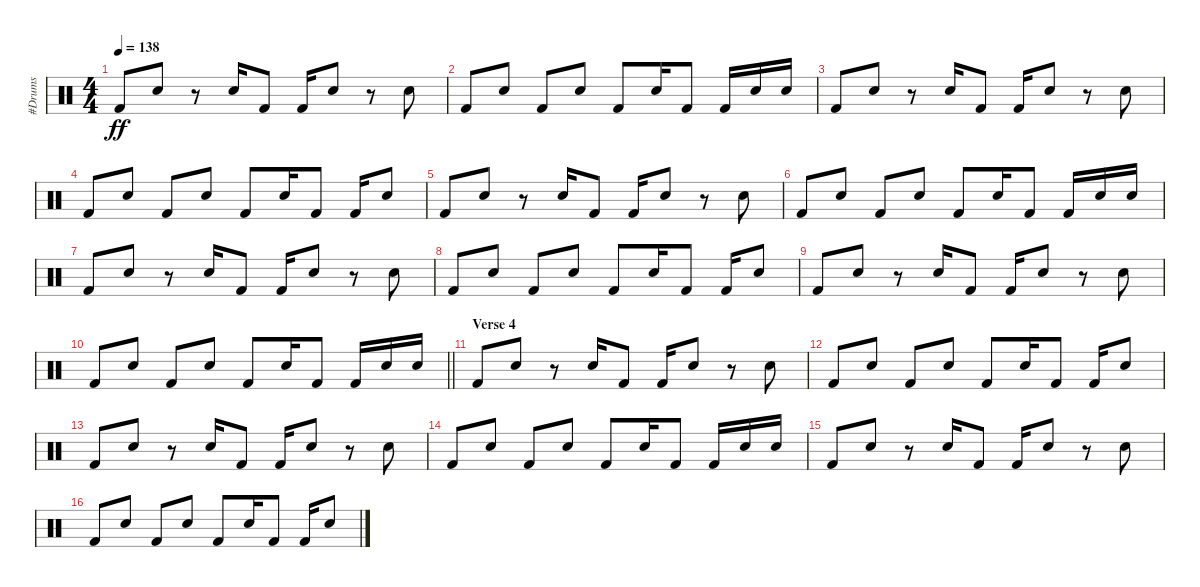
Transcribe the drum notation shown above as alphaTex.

\track ("#Drums" "#Drums") {instrument percussion}
\staff {score}
\articulation defaults
\ts (4 4)
\tempo 138
\clef neutral
\ks c "Kick (hit) 2".8{dy ff} "Snare (hit) 2".8
r.8 "Snare (hit) 2".16 "Kick (hit) 2".8 "Kick (hit) 2".16 "Snare (hit) 2".8 r.8 "Snare (hit) 2".8 |
"Kick (hit) 2".8 "Snare (hit) 2".8 "Kick (hit) 2".8 "Snare (hit) 2".8 "Kick (hit) 2".8 "Snare (hit) 2".16 "Kick (hit) 2".8 "Kick (hit) 2".16 "Snare (hit) 2".16 "Snare (hit) 2".16 |
"Kick (hit) 2".8 "Snare (hit) 2".8 r.8 "Snare (hit) 2".16 "Kick (hit) 2".8 "Kick (hit) 2".16 "Snare (hit) 2".8 r.8 "Snare (hit) 2".8 |
"Kick (hit) 2".8 "Snare (hit) 2".8 "Kick (hit) 2".8 "Snare (hit) 2".8 "Kick (hit) 2".8 "Snare (hit) 2".16 "Kick (hit) 2".8 "Kick (hit) 2".16 "Snare (hit) 2".8 |
"Kick (hit) 2".8 "Snare (hit) 2".8 r.8 "Snare (hit) 2".16 "Kick (hit) 2".8 "Kick (hit) 2".16 "Snare (hit) 2".8 r.8 "Snare (hit) 2".8 |
"Kick (hit) 2".8 "Snare (hit) 2".8 "Kick (hit) 2".8 "Snare (hit) 2".8 "Kick (hit) 2".8 "Snare (hit) 2".16 "Kick (hit) 2".8 "Kick (hit) 2".16 "Snare (hit) 2".16 "Snare (hit) 2".16 |
"Kick (hit) 2".8 "Snare (hit) 2".8 r.8 "Snare (hit) 2".16 "Kick (hit) 2".8 "Kick (hit) 2".16 "Snare (hit) 2".8 r.8 "Snare (hit) 2".8 |
"Kick (hit) 2".8 "Snare (hit) 2".8 "Kick (hit) 2".8 "Snare (hit) 2".8 "Kick (hit) 2".8 "Snare (hit) 2".16 "Kick (hit) 2".8 "Kick (hit) 2".16 "Snare (hit) 2".8 |
"Kick (hit) 2".8 "Snare (hit) 2".8 r.8 "Snare (hit) 2".16 "Kick (hit) 2".8 "Kick (hit) 2".16 "Snare (hit) 2".8 r.8 "Snare (hit) 2".8 |
\barLineRight lightlight "Kick (hit) 2".8 "Snare (hit) 2".8 "Kick (hit) 2".8 "Snare (hit) 2".8 "Kick (hit) 2".8 "Snare (hit) 2".16 "Kick (hit) 2".8 "Kick (hit) 2".16 "Snare (hit) 2".16 "Snare (hit) 2".16
|
\section ("" "Verse 4")
"Kick (hit) 2".8 "Snare (hit) 2".8 r.8 "Snare (hit) 2".16 "Kick (hit) 2".8 "Kick (hit) 2".16 "Snare (hit) 2".8 r.8 "Snare (hit) 2".8 |
"Kick (hit) 2".8 "Snare (hit) 2".8 "Kick (hit) 2".8 "Snare (hit) 2".8 "Kick (hit) 2".8 "Snare (hit) 2".16 "Kick (hit) 2".8 "Kick (hit) 2".16 "Snare (hit) 2".8 |
"Kick (hit) 2".8 "Snare (hit) 2".8 r.8 "Snare (hit) 2".16 "Kick (hit) 2".8 "Kick (hit) 2".16 "Snare (hit) 2".8 r.8 "Snare (hit) 2".8 |
"Kick (hit) 2".8 "Snare (hit) 2".8 "Kick (hit) 2".8 "Snare (hit) 2".8 "Kick (hit) 2".8 "Snare (hit) 2".16 "Kick (hit) 2".8 "Kick (hit) 2".16 "Snare (hit) 2".16 "Snare (hit) 2".16 |
"Kick (hit) 2".8 "Snare (hit) 2".8 r.8 "Snare (hit) 2".16 "Kick (hit) 2".8 "Kick (hit) 2".16 "Snare (hit) 2".8 r.8 "Snare (hit) 2".8 |
"Kick (hit) 2".8 "Snare (hit) 2".8 "Kick (hit) 2".8 "Snare (hit) 2".8 "Kick (hit) 2".8 "Snare (hit) 2".16 "Kick (hit) 2".8 "Kick (hit) 2".16 "Snare (hit) 2".8
